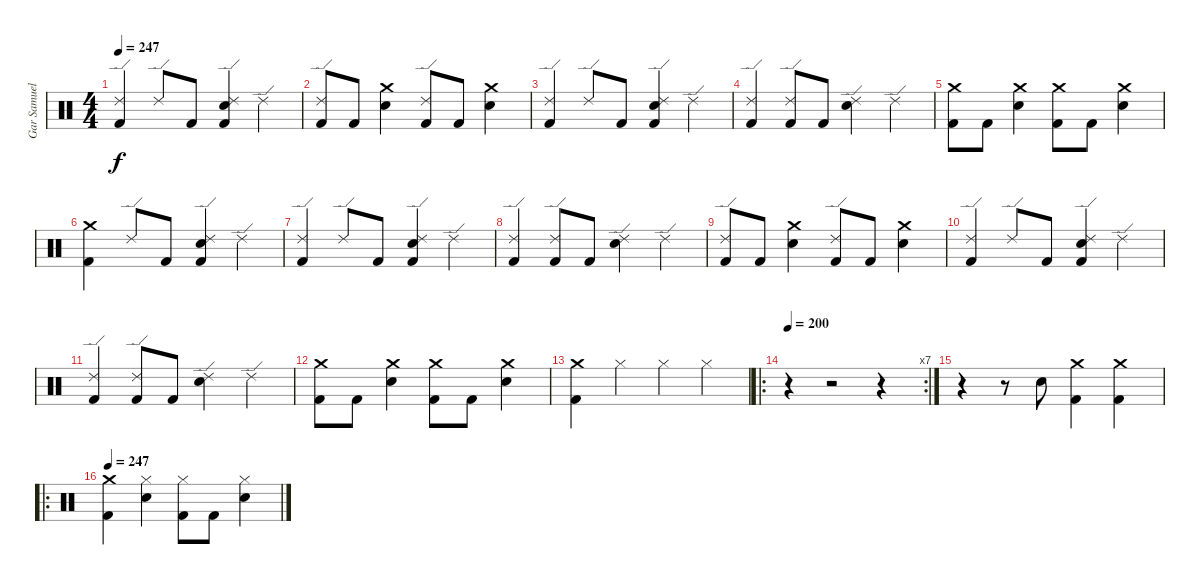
\track ("Gar Samuelson (Drums)" "Gar Samuel") {instrument percussion}
\staff {score}
\articulation defaults
\ts (4 4)
\tempo 247
\clef neutral
\ks c
("Kick (hit) 2" "Ride (edge) 2").4{dy f} "Ride (edge) 2".8 "Kick (hit) 2".8 ("Kick (hit) 2" "Snare (hit) 2" "Ride (edge) 2").4 "Ride (edge) 2".4 |
("Ride (edge) 2" "Kick (hit) 2").8 "Kick (hit) 2".8 ("Snare (hit) 2" "Crash medium (hit)").4 ("Ride (edge) 2" "Kick (hit) 2").8 "Kick (hit) 2".8 ("Snare (hit) 2" "Crash medium (hit)").4 |
("Ride (edge) 2" "Kick (hit) 2").4 "Ride (edge) 2".8 "Kick (hit) 2".8 ("Ride (edge) 2" "Snare (hit) 2" "Kick (hit) 2").4 "Ride (edge) 2".4 |
("Kick (hit) 2" "Ride (edge) 2").4 ("Ride (edge) 2" "Kick (hit) 2").8 "Kick (hit) 2".8 ("Snare (hit) 2" "Ride (edge) 2").4 "Ride (edge) 2".4 |
("Kick (hit) 2" "Crash medium (hit)").8 "Kick (hit) 2".8 ("Snare (hit) 2" "Crash medium (hit)").4 ("Kick (hit) 2" "Crash medium (hit)").8 "Kick (hit) 2".8 ("Snare (hit) 2" "Crash medium (hit)").4 |
("Kick (hit) 2" "Crash medium (hit)").4 "Ride (edge) 2".8 "Kick (hit) 2".8 ("Kick (hit) 2" "Snare (hit) 2" "Ride (edge) 2").4 "Ride (edge) 2".4 |
("Kick (hit) 2" "Ride (edge) 2").4 "Ride (edge) 2".8 "Kick (hit) 2".8 ("Kick (hit) 2" "Snare (hit) 2" "Ride (edge) 2").4 "Ride (edge) 2".4 |
("Kick (hit) 2" "Ride (edge) 2").4 ("Kick (hit) 2" "Ride (edge) 2").8 "Kick (hit) 2".8 ("Ride (edge) 2" "Snare (hit) 2").4 "Ride (edge) 2".4 |
("Ride (edge) 2" "Kick (hit) 2").8 "Kick (hit) 2".8 ("Snare (hit) 2" "Crash medium (hit)").4 ("Ride (edge) 2" "Kick (hit) 2").8 "Kick (hit) 2".8 ("Snare (hit) 2" "Crash medium (hit)").4 |
("Ride (edge) 2" "Kick (hit) 2").4 "Ride (edge) 2".8 "Kick (hit) 2".8 ("Ride (edge) 2" "Snare (hit) 2" "Kick (hit) 2").4 "Ride (edge) 2".4 |
("Kick (hit) 2" "Ride (edge) 2").4 ("Ride (edge) 2" "Kick (hit) 2").8 "Kick (hit) 2".8 ("Snare (hit) 2" "Ride (edge) 2").4 "Ride (edge) 2".4 |
("Kick (hit) 2" "Crash medium (hit)").8 "Kick (hit) 2".8 ("Snare (hit) 2" "Crash medium (hit)").4 ("Kick (hit) 2" "Crash medium (hit)").8 "Kick (hit) 2".8 ("Snare (hit) 2" "Crash medium (hit)").4 |
("Kick (hit) 2" "Crash medium (hit)").4 "Hi-Hat (closed)".4 "Hi-Hat (closed)".4 "Hi-Hat (closed)".4 |
\ro
\rc 7
\tempo 200
r.4 r.2 r.4 |
r.4 r.8 "Snare (hit) 2".8 ("Kick (hit) 2" "Crash medium (hit)").4 ("Kick (hit) 2" "Crash medium (hit)").4 |
\ro
\tempo 247
("Kick (hit) 2" "Crash medium (hit)").4 ("Hi-Hat (closed)" "Snare (hit) 2").4 ("Kick (hit) 2" "Hi-Hat (closed)").8 "Kick (hit) 2".8 ("Snare (hit) 2" "Hi-Hat (closed)").4
